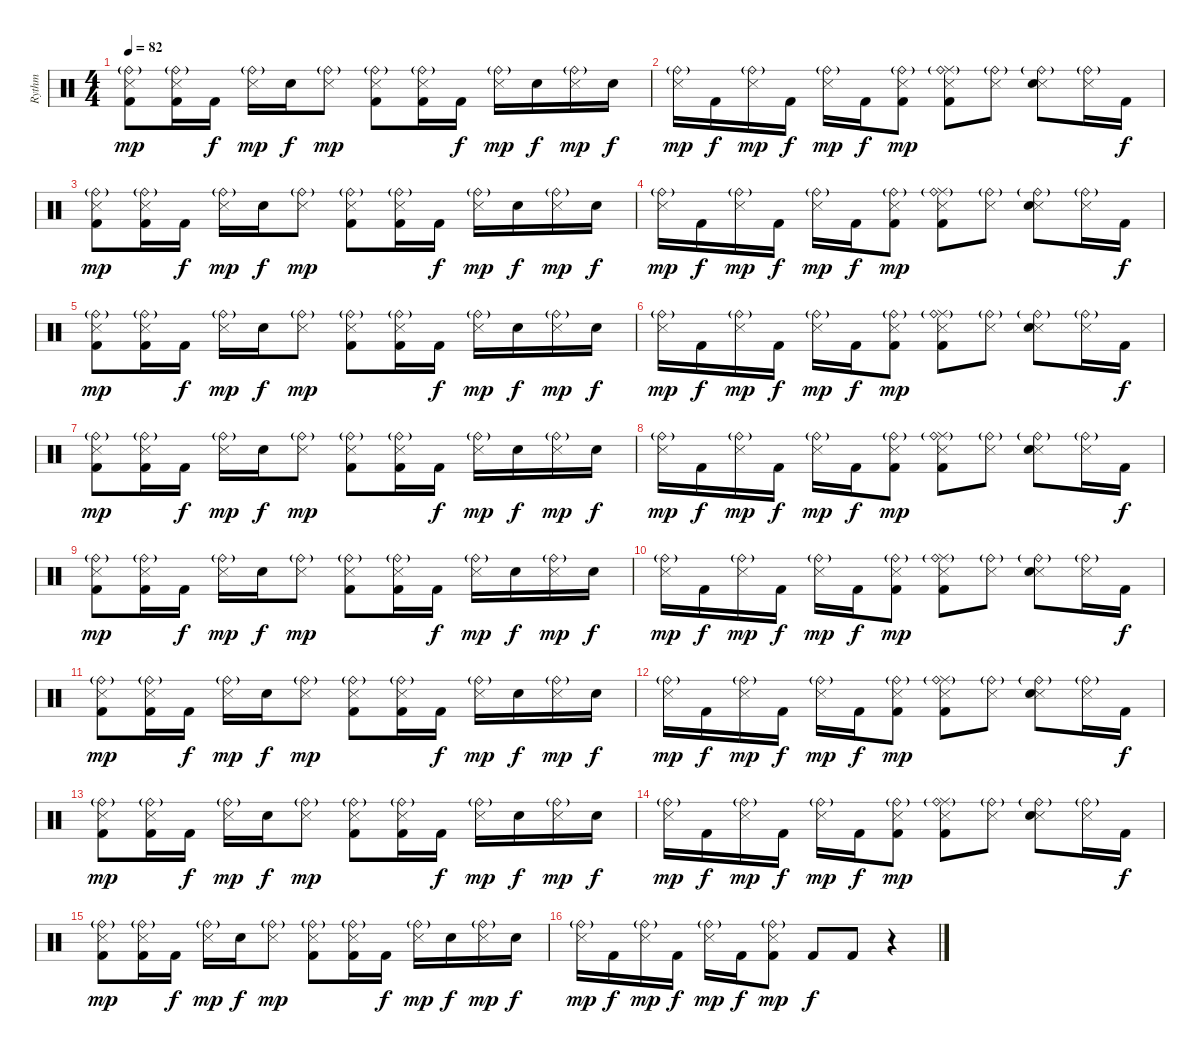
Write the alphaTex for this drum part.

\track ("Rythm" "Rythm") {instrument percussion}
\staff {score}
\articulation defaults
\ts (4 4)
\tempo 82
\clef neutral
\ks c
("Ride (bell)"{g} "Metronome (hit)" "Kick (hit) 2").8{dy mp} ("Ride (bell)"{g} "Metronome (hit)" "Kick (hit) 2").16 "Kick (hit) 2".16{dy f} ("Ride (bell)"{g} "Metronome (hit)").16{dy mp} "Electric Snare (hit)".16{dy f} ("Ride (bell)"{g} "Metronome (hit)").8{dy mp} ("Ride (bell)"{g} "Metronome (hit)" "Kick (hit) 2").8 ("Ride (bell)"{g} "Metronome (hit)" "Kick (hit) 2").16 "Kick (hit) 2".16{dy f} ("Ride (bell)"{g} "Metronome (hit)").16{dy mp} "Electric Snare (hit)".16{dy f} ("Ride (bell)"{g} "Metronome (hit)").16{dy mp} "Electric Snare (hit)".16{dy f} |
("Ride (bell)"{g} "Metronome (hit)").16{dy mp} "Kick (hit) 2".16{dy f} ("Ride (bell)"{g} "Metronome (hit)").16{dy mp} "Kick (hit) 2".16{dy f} ("Ride (bell)"{g} "Metronome (hit)").16{dy mp} "Kick (hit) 2".16{dy f} ("Ride (bell)"{g} "Metronome (hit)" "Kick (hit) 2").8{dy mp} ("Ride (middle)" "Ride (bell)"{g} "Metronome (hit)" "Kick (hit) 2").8 ("Ride (bell)"{g} "Metronome (hit)").8 ("Ride (bell)"{g} "Metronome (hit)" "Electric Snare (hit)").8 ("Ride (bell)"{g} "Metronome (hit)").16 "Kick (hit) 2".16{dy f} |
("Ride (bell)"{g} "Metronome (hit)" "Kick (hit) 2").8{dy mp} ("Ride (bell)"{g} "Metronome (hit)" "Kick (hit) 2").16 "Kick (hit) 2".16{dy f} ("Ride (bell)"{g} "Metronome (hit)").16{dy mp} "Electric Snare (hit)".16{dy f} ("Ride (bell)"{g} "Metronome (hit)").8{dy mp} ("Ride (bell)"{g} "Metronome (hit)" "Kick (hit) 2").8 ("Ride (bell)"{g} "Metronome (hit)" "Kick (hit) 2").16 "Kick (hit) 2".16{dy f} ("Ride (bell)"{g} "Metronome (hit)").16{dy mp} "Electric Snare (hit)".16{dy f} ("Ride (bell)"{g} "Metronome (hit)").16{dy mp} "Electric Snare (hit)".16{dy f} |
("Ride (bell)"{g} "Metronome (hit)").16{dy mp} "Kick (hit) 2".16{dy f} ("Ride (bell)"{g} "Metronome (hit)").16{dy mp} "Kick (hit) 2".16{dy f} ("Ride (bell)"{g} "Metronome (hit)").16{dy mp} "Kick (hit) 2".16{dy f} ("Ride (bell)"{g} "Metronome (hit)" "Kick (hit) 2").8{dy mp} ("Ride (middle)" "Ride (bell)"{g} "Metronome (hit)" "Kick (hit) 2").8 ("Ride (bell)"{g} "Metronome (hit)").8 ("Ride (bell)"{g} "Metronome (hit)" "Electric Snare (hit)").8 ("Ride (bell)"{g} "Metronome (hit)").16 "Kick (hit) 2".16{dy f} |
("Ride (bell)"{g} "Metronome (hit)" "Kick (hit) 2").8{dy mp} ("Ride (bell)"{g} "Metronome (hit)" "Kick (hit) 2").16 "Kick (hit) 2".16{dy f} ("Ride (bell)"{g} "Metronome (hit)").16{dy mp} "Electric Snare (hit)".16{dy f} ("Ride (bell)"{g} "Metronome (hit)").8{dy mp} ("Ride (bell)"{g} "Metronome (hit)" "Kick (hit) 2").8 ("Ride (bell)"{g} "Metronome (hit)" "Kick (hit) 2").16 "Kick (hit) 2".16{dy f} ("Ride (bell)"{g} "Metronome (hit)").16{dy mp} "Electric Snare (hit)".16{dy f} ("Ride (bell)"{g} "Metronome (hit)").16{dy mp} "Electric Snare (hit)".16{dy f} |
("Ride (bell)"{g} "Metronome (hit)").16{dy mp} "Kick (hit) 2".16{dy f} ("Ride (bell)"{g} "Metronome (hit)").16{dy mp} "Kick (hit) 2".16{dy f} ("Ride (bell)"{g} "Metronome (hit)").16{dy mp} "Kick (hit) 2".16{dy f} ("Ride (bell)"{g} "Metronome (hit)" "Kick (hit) 2").8{dy mp} ("Ride (middle)" "Ride (bell)"{g} "Metronome (hit)" "Kick (hit) 2").8 ("Ride (bell)"{g} "Metronome (hit)").8 ("Ride (bell)"{g} "Metronome (hit)" "Electric Snare (hit)").8 ("Ride (bell)"{g} "Metronome (hit)").16 "Kick (hit) 2".16{dy f} |
("Ride (bell)"{g} "Metronome (hit)" "Kick (hit) 2").8{dy mp} ("Ride (bell)"{g} "Metronome (hit)" "Kick (hit) 2").16 "Kick (hit) 2".16{dy f} ("Ride (bell)"{g} "Metronome (hit)").16{dy mp} "Electric Snare (hit)".16{dy f} ("Ride (bell)"{g} "Metronome (hit)").8{dy mp} ("Ride (bell)"{g} "Metronome (hit)" "Kick (hit) 2").8 ("Ride (bell)"{g} "Metronome (hit)" "Kick (hit) 2").16 "Kick (hit) 2".16{dy f} ("Ride (bell)"{g} "Metronome (hit)").16{dy mp} "Electric Snare (hit)".16{dy f} ("Ride (bell)"{g} "Metronome (hit)").16{dy mp} "Electric Snare (hit)".16{dy f} |
("Ride (bell)"{g} "Metronome (hit)").16{dy mp} "Kick (hit) 2".16{dy f} ("Ride (bell)"{g} "Metronome (hit)").16{dy mp} "Kick (hit) 2".16{dy f} ("Ride (bell)"{g} "Metronome (hit)").16{dy mp} "Kick (hit) 2".16{dy f} ("Ride (bell)"{g} "Metronome (hit)" "Kick (hit) 2").8{dy mp} ("Ride (middle)" "Ride (bell)"{g} "Metronome (hit)" "Kick (hit) 2").8 ("Ride (bell)"{g} "Metronome (hit)").8 ("Ride (bell)"{g} "Metronome (hit)" "Electric Snare (hit)").8 ("Ride (bell)"{g} "Metronome (hit)").16 "Kick (hit) 2".16{dy f} |
("Ride (bell)"{g} "Metronome (hit)" "Kick (hit) 2").8{dy mp} ("Ride (bell)"{g} "Metronome (hit)" "Kick (hit) 2").16 "Kick (hit) 2".16{dy f} ("Ride (bell)"{g} "Metronome (hit)").16{dy mp} "Electric Snare (hit)".16{dy f} ("Ride (bell)"{g} "Metronome (hit)").8{dy mp} ("Ride (bell)"{g} "Metronome (hit)" "Kick (hit) 2").8 ("Ride (bell)"{g} "Metronome (hit)" "Kick (hit) 2").16 "Kick (hit) 2".16{dy f} ("Ride (bell)"{g} "Metronome (hit)").16{dy mp} "Electric Snare (hit)".16{dy f} ("Ride (bell)"{g} "Metronome (hit)").16{dy mp} "Electric Snare (hit)".16{dy f} |
("Ride (bell)"{g} "Metronome (hit)").16{dy mp} "Kick (hit) 2".16{dy f} ("Ride (bell)"{g} "Metronome (hit)").16{dy mp} "Kick (hit) 2".16{dy f} ("Ride (bell)"{g} "Metronome (hit)").16{dy mp} "Kick (hit) 2".16{dy f} ("Ride (bell)"{g} "Metronome (hit)" "Kick (hit) 2").8{dy mp} ("Ride (middle)" "Ride (bell)"{g} "Metronome (hit)" "Kick (hit) 2").8 ("Ride (bell)"{g} "Metronome (hit)").8 ("Ride (bell)"{g} "Metronome (hit)" "Electric Snare (hit)").8 ("Ride (bell)"{g} "Metronome (hit)").16 "Kick (hit) 2".16{dy f} |
("Ride (bell)"{g} "Metronome (hit)" "Kick (hit) 2").8{dy mp} ("Ride (bell)"{g} "Metronome (hit)" "Kick (hit) 2").16 "Kick (hit) 2".16{dy f} ("Ride (bell)"{g} "Metronome (hit)").16{dy mp} "Electric Snare (hit)".16{dy f} ("Ride (bell)"{g} "Metronome (hit)").8{dy mp} ("Ride (bell)"{g} "Metronome (hit)" "Kick (hit) 2").8 ("Ride (bell)"{g} "Metronome (hit)" "Kick (hit) 2").16 "Kick (hit) 2".16{dy f} ("Ride (bell)"{g} "Metronome (hit)").16{dy mp} "Electric Snare (hit)".16{dy f} ("Ride (bell)"{g} "Metronome (hit)").16{dy mp} "Electric Snare (hit)".16{dy f} |
("Ride (bell)"{g} "Metronome (hit)").16{dy mp} "Kick (hit) 2".16{dy f} ("Ride (bell)"{g} "Metronome (hit)").16{dy mp} "Kick (hit) 2".16{dy f} ("Ride (bell)"{g} "Metronome (hit)").16{dy mp} "Kick (hit) 2".16{dy f} ("Ride (bell)"{g} "Metronome (hit)" "Kick (hit) 2").8{dy mp} ("Ride (middle)" "Ride (bell)"{g} "Metronome (hit)" "Kick (hit) 2").8 ("Ride (bell)"{g} "Metronome (hit)").8 ("Ride (bell)"{g} "Metronome (hit)" "Electric Snare (hit)").8 ("Ride (bell)"{g} "Metronome (hit)").16 "Kick (hit) 2".16{dy f} |
("Ride (bell)"{g} "Metronome (hit)" "Kick (hit) 2").8{dy mp} ("Ride (bell)"{g} "Metronome (hit)" "Kick (hit) 2").16 "Kick (hit) 2".16{dy f} ("Ride (bell)"{g} "Metronome (hit)").16{dy mp} "Electric Snare (hit)".16{dy f} ("Ride (bell)"{g} "Metronome (hit)").8{dy mp} ("Ride (bell)"{g} "Metronome (hit)" "Kick (hit) 2").8 ("Ride (bell)"{g} "Metronome (hit)" "Kick (hit) 2").16 "Kick (hit) 2".16{dy f} ("Ride (bell)"{g} "Metronome (hit)").16{dy mp} "Electric Snare (hit)".16{dy f} ("Ride (bell)"{g} "Metronome (hit)").16{dy mp} "Electric Snare (hit)".16{dy f} |
("Ride (bell)"{g} "Metronome (hit)").16{dy mp} "Kick (hit) 2".16{dy f} ("Ride (bell)"{g} "Metronome (hit)").16{dy mp} "Kick (hit) 2".16{dy f} ("Ride (bell)"{g} "Metronome (hit)").16{dy mp} "Kick (hit) 2".16{dy f} ("Ride (bell)"{g} "Metronome (hit)" "Kick (hit) 2").8{dy mp} ("Ride (middle)" "Ride (bell)"{g} "Metronome (hit)" "Kick (hit) 2").8 ("Ride (bell)"{g} "Metronome (hit)").8 ("Ride (bell)"{g} "Metronome (hit)" "Electric Snare (hit)").8 ("Ride (bell)"{g} "Metronome (hit)").16 "Kick (hit) 2".16{dy f} |
("Ride (bell)"{g} "Metronome (hit)" "Kick (hit) 2").8{dy mp} ("Ride (bell)"{g} "Metronome (hit)" "Kick (hit) 2").16 "Kick (hit) 2".16{dy f} ("Ride (bell)"{g} "Metronome (hit)").16{dy mp} "Electric Snare (hit)".16{dy f} ("Ride (bell)"{g} "Metronome (hit)").8{dy mp} ("Ride (bell)"{g} "Metronome (hit)" "Kick (hit) 2").8 ("Ride (bell)"{g} "Metronome (hit)" "Kick (hit) 2").16 "Kick (hit) 2".16{dy f} ("Ride (bell)"{g} "Metronome (hit)").16{dy mp} "Electric Snare (hit)".16{dy f} ("Ride (bell)"{g} "Metronome (hit)").16{dy mp} "Electric Snare (hit)".16{dy f} |
("Ride (bell)"{g} "Metronome (hit)").16{dy mp} "Kick (hit) 2".16{dy f} ("Ride (bell)"{g} "Metronome (hit)").16{dy mp} "Kick (hit) 2".16{dy f} ("Ride (bell)"{g} "Metronome (hit)").16{dy mp} "Kick (hit) 2".16{dy f} ("Ride (bell)"{g} "Metronome (hit)" "Kick (hit) 2").8{dy mp} "Kick (hit) 2".8{dy f} "Kick (hit) 2".8 r.4
